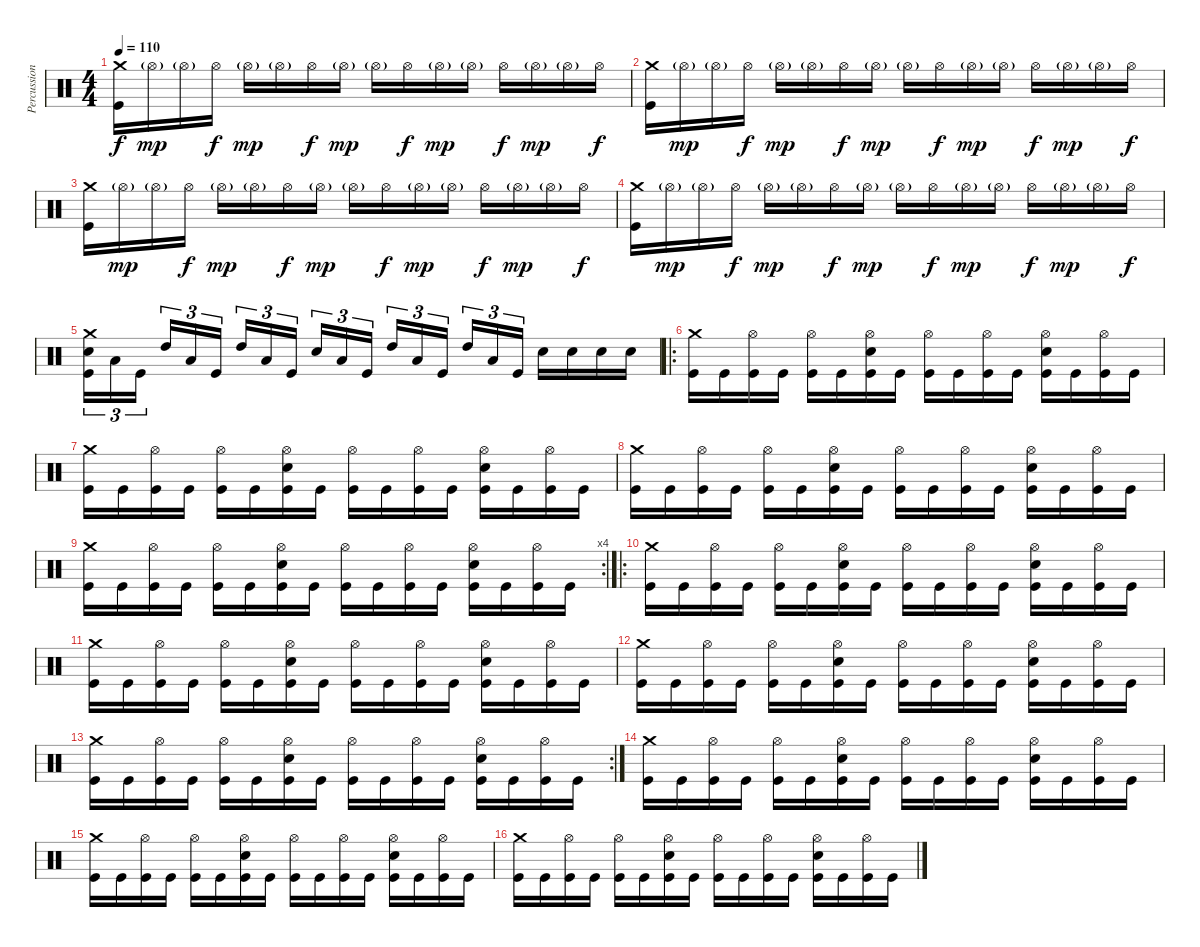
\track ("Percussion" "Percussion") {instrument percussion}
\staff {score}
\articulation defaults
\ts (4 4)
\tempo 110
\clef neutral
\ks c
("Crash medium (hit)" "Kick (hit)").16{dy f} "Hi-Hat (open)"{g}.16{dy mp} "Hi-Hat (open)"{g}.16 "Hi-Hat (open)".16{dy f} "Hi-Hat (open)"{g}.16{dy mp} "Hi-Hat (open)"{g}.16 "Hi-Hat (open)".16{dy f} "Hi-Hat (open)"{g}.16{dy mp} "Hi-Hat (open)"{g}.16 "Hi-Hat (open)".16{dy f} "Hi-Hat (open)"{g}.16{dy mp} "Hi-Hat (open)"{g}.16 "Hi-Hat (open)".16{dy f} "Hi-Hat (open)"{g}.16{dy mp} "Hi-Hat (open)"{g}.16 "Hi-Hat (open)".16{dy f} |
("Crash medium (hit)" "Kick (hit)").16 "Hi-Hat (open)"{g}.16{dy mp} "Hi-Hat (open)"{g}.16 "Hi-Hat (open)".16{dy f} "Hi-Hat (open)"{g}.16{dy mp} "Hi-Hat (open)"{g}.16 "Hi-Hat (open)".16{dy f} "Hi-Hat (open)"{g}.16{dy mp} "Hi-Hat (open)"{g}.16 "Hi-Hat (open)".16{dy f} "Hi-Hat (open)"{g}.16{dy mp} "Hi-Hat (open)"{g}.16 "Hi-Hat (open)".16{dy f} "Hi-Hat (open)"{g}.16{dy mp} "Hi-Hat (open)"{g}.16 "Hi-Hat (open)".16{dy f} |
("Crash medium (hit)" "Kick (hit)").16 "Hi-Hat (open)"{g}.16{dy mp} "Hi-Hat (open)"{g}.16 "Hi-Hat (open)".16{dy f} "Hi-Hat (open)"{g}.16{dy mp} "Hi-Hat (open)"{g}.16 "Hi-Hat (open)".16{dy f} "Hi-Hat (open)"{g}.16{dy mp} "Hi-Hat (open)"{g}.16 "Hi-Hat (open)".16{dy f} "Hi-Hat (open)"{g}.16{dy mp} "Hi-Hat (open)"{g}.16 "Hi-Hat (open)".16{dy f} "Hi-Hat (open)"{g}.16{dy mp} "Hi-Hat (open)"{g}.16 "Hi-Hat (open)".16{dy f} |
("Crash medium (hit)" "Kick (hit)").16 "Hi-Hat (open)"{g}.16{dy mp} "Hi-Hat (open)"{g}.16 "Hi-Hat (open)".16{dy f} "Hi-Hat (open)"{g}.16{dy mp} "Hi-Hat (open)"{g}.16 "Hi-Hat (open)".16{dy f} "Hi-Hat (open)"{g}.16{dy mp} "Hi-Hat (open)"{g}.16 "Hi-Hat (open)".16{dy f} "Hi-Hat (open)"{g}.16{dy mp} "Hi-Hat (open)"{g}.16 "Hi-Hat (open)".16{dy f} "Hi-Hat (open)"{g}.16{dy mp} "Hi-Hat (open)"{g}.16 "Hi-Hat (open)".16{dy f} |
("Crash medium (hit)" "Snare (hit) 2" "Kick (hit)").16{tu (3 2)} "Low Tom (hit)".16{tu (3 2)} "Kick (hit)".16{tu (3 2) beam splitsecondary} "High Tom (hit)".16{tu (3 2)} "Low Tom (hit)".16{tu (3 2)} "Kick (hit)".16{tu (3 2)} "High Tom (hit)".16{tu (3 2)} "Low Tom (hit)".16{tu (3 2)} "Kick (hit)".16{tu (3 2) beam splitsecondary} "Snare (hit) 2".16{tu (3 2)} "Low Tom (hit)".16{tu (3 2)} "Kick (hit)".16{tu (3 2)} "High Tom (hit)".16{tu (3 2)} "Low Tom (hit)".16{tu (3 2)} "Kick (hit)".16{tu (3 2) beam splitsecondary} "High Tom (hit)".16{tu (3 2)} "Low Tom (hit)".16{tu (3 2)} "Kick (hit)".16{tu (3 2)} "Snare (hit) 2".16 "Snare (hit) 2".16 "Snare (hit) 2".16 "Snare (hit) 2".16 |
\ro
("Crash medium (hit)" "Kick (hit)").16 "Kick (hit)".16 ("Hi-Hat (open)" "Kick (hit)").16 "Kick (hit)".16 ("Hi-Hat (open)" "Kick (hit)").16 "Kick (hit)".16 ("Hi-Hat (open)" "Snare (hit) 2" "Kick (hit)").16 "Kick (hit)".16 ("Hi-Hat (open)" "Kick (hit)").16 "Kick (hit)".16 ("Hi-Hat (open)" "Kick (hit)").16 "Kick (hit)".16 ("Hi-Hat (open)" "Snare (hit) 2" "Kick (hit)").16 "Kick (hit)".16 ("Hi-Hat (open)" "Kick (hit)").16 "Kick (hit)".16 |
("Crash medium (hit)" "Kick (hit)").16 "Kick (hit)".16 ("Hi-Hat (open)" "Kick (hit)").16 "Kick (hit)".16 ("Hi-Hat (open)" "Kick (hit)").16 "Kick (hit)".16 ("Hi-Hat (open)" "Snare (hit) 2" "Kick (hit)").16 "Kick (hit)".16 ("Hi-Hat (open)" "Kick (hit)").16 "Kick (hit)".16 ("Hi-Hat (open)" "Kick (hit)").16 "Kick (hit)".16 ("Hi-Hat (open)" "Snare (hit) 2" "Kick (hit)").16 "Kick (hit)".16 ("Hi-Hat (open)" "Kick (hit)").16 "Kick (hit)".16 |
("Crash medium (hit)" "Kick (hit)").16 "Kick (hit)".16 ("Hi-Hat (open)" "Kick (hit)").16 "Kick (hit)".16 ("Hi-Hat (open)" "Kick (hit)").16 "Kick (hit)".16 ("Hi-Hat (open)" "Snare (hit) 2" "Kick (hit)").16 "Kick (hit)".16 ("Hi-Hat (open)" "Kick (hit)").16 "Kick (hit)".16 ("Hi-Hat (open)" "Kick (hit)").16 "Kick (hit)".16 ("Hi-Hat (open)" "Snare (hit) 2" "Kick (hit)").16 "Kick (hit)".16 ("Hi-Hat (open)" "Kick (hit)").16 "Kick (hit)".16 |
\rc 4
("Crash medium (hit)" "Kick (hit)").16 "Kick (hit)".16 ("Hi-Hat (open)" "Kick (hit)").16 "Kick (hit)".16 ("Hi-Hat (open)" "Kick (hit)").16 "Kick (hit)".16 ("Hi-Hat (open)" "Snare (hit) 2" "Kick (hit)").16 "Kick (hit)".16 ("Hi-Hat (open)" "Kick (hit)").16 "Kick (hit)".16 ("Hi-Hat (open)" "Kick (hit)").16 "Kick (hit)".16 ("Hi-Hat (open)" "Snare (hit) 2" "Kick (hit)").16 "Kick (hit)".16 ("Hi-Hat (open)" "Kick (hit)").16 "Kick (hit)".16 |
\ro
("Crash medium (hit)" "Kick (hit)").16 "Kick (hit)".16 ("Hi-Hat (open)" "Kick (hit)").16 "Kick (hit)".16 ("Hi-Hat (open)" "Kick (hit)").16 "Kick (hit)".16 ("Hi-Hat (open)" "Snare (hit) 2" "Kick (hit)").16 "Kick (hit)".16 ("Hi-Hat (open)" "Kick (hit)").16 "Kick (hit)".16 ("Hi-Hat (open)" "Kick (hit)").16 "Kick (hit)".16 ("Hi-Hat (open)" "Snare (hit) 2" "Kick (hit)").16 "Kick (hit)".16 ("Hi-Hat (open)" "Kick (hit)").16 "Kick (hit)".16 |
("Crash medium (hit)" "Kick (hit)").16 "Kick (hit)".16 ("Hi-Hat (open)" "Kick (hit)").16 "Kick (hit)".16 ("Hi-Hat (open)" "Kick (hit)").16 "Kick (hit)".16 ("Hi-Hat (open)" "Snare (hit) 2" "Kick (hit)").16 "Kick (hit)".16 ("Hi-Hat (open)" "Kick (hit)").16 "Kick (hit)".16 ("Hi-Hat (open)" "Kick (hit)").16 "Kick (hit)".16 ("Hi-Hat (open)" "Snare (hit) 2" "Kick (hit)").16 "Kick (hit)".16 ("Hi-Hat (open)" "Kick (hit)").16 "Kick (hit)".16 |
("Crash medium (hit)" "Kick (hit)").16 "Kick (hit)".16 ("Hi-Hat (open)" "Kick (hit)").16 "Kick (hit)".16 ("Hi-Hat (open)" "Kick (hit)").16 "Kick (hit)".16 ("Hi-Hat (open)" "Snare (hit) 2" "Kick (hit)").16 "Kick (hit)".16 ("Hi-Hat (open)" "Kick (hit)").16 "Kick (hit)".16 ("Hi-Hat (open)" "Kick (hit)").16 "Kick (hit)".16 ("Hi-Hat (open)" "Snare (hit) 2" "Kick (hit)").16 "Kick (hit)".16 ("Hi-Hat (open)" "Kick (hit)").16 "Kick (hit)".16 |
\rc 2
("Crash medium (hit)" "Kick (hit)").16 "Kick (hit)".16 ("Hi-Hat (open)" "Kick (hit)").16 "Kick (hit)".16 ("Hi-Hat (open)" "Kick (hit)").16 "Kick (hit)".16 ("Hi-Hat (open)" "Snare (hit) 2" "Kick (hit)").16 "Kick (hit)".16 ("Hi-Hat (open)" "Kick (hit)").16 "Kick (hit)".16 ("Hi-Hat (open)" "Kick (hit)").16 "Kick (hit)".16 ("Hi-Hat (open)" "Snare (hit) 2" "Kick (hit)").16 "Kick (hit)".16 ("Hi-Hat (open)" "Kick (hit)").16 "Kick (hit)".16 |
("Crash medium (hit)" "Kick (hit)").16 "Kick (hit)".16 ("Hi-Hat (open)" "Kick (hit)").16 "Kick (hit)".16 ("Hi-Hat (open)" "Kick (hit)").16 "Kick (hit)".16 ("Hi-Hat (open)" "Snare (hit) 2" "Kick (hit)").16 "Kick (hit)".16 ("Hi-Hat (open)" "Kick (hit)").16 "Kick (hit)".16 ("Hi-Hat (open)" "Kick (hit)").16 "Kick (hit)".16 ("Hi-Hat (open)" "Snare (hit) 2" "Kick (hit)").16 "Kick (hit)".16 ("Hi-Hat (open)" "Kick (hit)").16 "Kick (hit)".16 |
("Crash medium (hit)" "Kick (hit)").16 "Kick (hit)".16 ("Hi-Hat (open)" "Kick (hit)").16 "Kick (hit)".16 ("Hi-Hat (open)" "Kick (hit)").16 "Kick (hit)".16 ("Hi-Hat (open)" "Snare (hit) 2" "Kick (hit)").16 "Kick (hit)".16 ("Hi-Hat (open)" "Kick (hit)").16 "Kick (hit)".16 ("Hi-Hat (open)" "Kick (hit)").16 "Kick (hit)".16 ("Hi-Hat (open)" "Snare (hit) 2" "Kick (hit)").16 "Kick (hit)".16 ("Hi-Hat (open)" "Kick (hit)").16 "Kick (hit)".16 |
("Crash medium (hit)" "Kick (hit)").16 "Kick (hit)".16 ("Hi-Hat (open)" "Kick (hit)").16 "Kick (hit)".16 ("Hi-Hat (open)" "Kick (hit)").16 "Kick (hit)".16 ("Hi-Hat (open)" "Snare (hit) 2" "Kick (hit)").16 "Kick (hit)".16 ("Hi-Hat (open)" "Kick (hit)").16 "Kick (hit)".16 ("Hi-Hat (open)" "Kick (hit)").16 "Kick (hit)".16 ("Hi-Hat (open)" "Snare (hit) 2" "Kick (hit)").16 "Kick (hit)".16 ("Hi-Hat (open)" "Kick (hit)").16 "Kick (hit)".16
